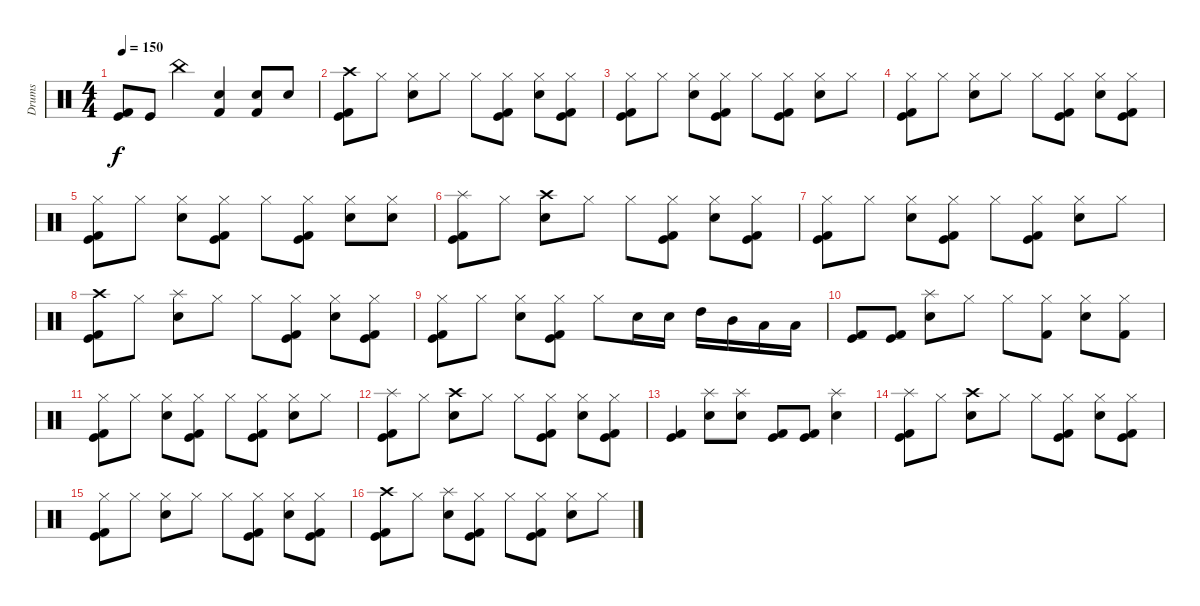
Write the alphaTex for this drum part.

\track ("Drums" "Drums") {instrument percussion}
\staff {score}
\articulation defaults
\ts (4 4)
\tempo 150
\clef neutral
\ks c
("Kick (hit)" "Kick (hit) 2").8{dy f} "Kick (hit)".8 "China (hit)".4 ("Snare (hit) 2" "Kick (hit) 2").4 ("Snare (hit) 2" "Kick (hit) 2").8 "Snare (hit) 2".8 |
("Crash high (hit)" "Kick (hit)" "Kick (hit) 2").8 "Hi-Hat (closed)".8 ("Hi-Hat (closed)" "Snare (hit) 2").8 "Hi-Hat (closed)".8 "Hi-Hat (closed)".8 ("Hi-Hat (closed)" "Kick (hit)" "Kick (hit) 2").8 ("Hi-Hat (closed)" "Snare (hit) 2").8 ("Hi-Hat (closed)" "Kick (hit)" "Kick (hit) 2").8 |
("Hi-Hat (closed)" "Kick (hit)" "Kick (hit) 2").8 "Hi-Hat (closed)".8 ("Hi-Hat (closed)" "Snare (hit) 2").8 ("Hi-Hat (closed)" "Kick (hit)" "Kick (hit) 2").8 "Hi-Hat (closed)".8 ("Hi-Hat (closed)" "Kick (hit)" "Kick (hit) 2").8 ("Hi-Hat (closed)" "Snare (hit) 2").8 "Hi-Hat (closed)".8 |
("Hi-Hat (closed)" "Kick (hit)" "Kick (hit) 2").8 "Hi-Hat (closed)".8 ("Hi-Hat (closed)" "Snare (hit) 2").8 "Hi-Hat (closed)".8 "Hi-Hat (closed)".8 ("Hi-Hat (closed)" "Kick (hit)" "Kick (hit) 2").8 ("Hi-Hat (closed)" "Snare (hit) 2").8 ("Hi-Hat (closed)" "Kick (hit)" "Kick (hit) 2").8 |
("Hi-Hat (closed)" "Kick (hit)" "Kick (hit) 2").8 "Hi-Hat (closed)".8 ("Hi-Hat (closed)" "Snare (hit) 2").8 ("Hi-Hat (closed)" "Kick (hit)" "Kick (hit) 2").8 "Hi-Hat (closed)".8 ("Hi-Hat (closed)" "Kick (hit)" "Kick (hit) 2").8 ("Hi-Hat (closed)" "Snare (hit) 2").8 ("Hi-Hat (closed)" "Snare (hit) 2").8 |
("Splash (hit)" "Kick (hit)" "Kick (hit) 2").8 "Hi-Hat (closed)".8 ("Crash high (hit)" "Snare (hit) 2").8 "Hi-Hat (closed)".8 "Hi-Hat (closed)".8 ("Hi-Hat (closed)" "Kick (hit)" "Kick (hit) 2").8 ("Hi-Hat (closed)" "Snare (hit) 2").8 ("Hi-Hat (closed)" "Kick (hit)" "Kick (hit) 2").8 |
("Hi-Hat (closed)" "Kick (hit)" "Kick (hit) 2").8 "Hi-Hat (closed)".8 ("Hi-Hat (closed)" "Snare (hit) 2").8 ("Hi-Hat (closed)" "Kick (hit)" "Kick (hit) 2").8 "Hi-Hat (closed)".8 ("Hi-Hat (closed)" "Kick (hit)" "Kick (hit) 2").8 ("Hi-Hat (closed)" "Snare (hit) 2").8 "Hi-Hat (closed)".8 |
("Crash high (hit)" "Kick (hit)" "Kick (hit) 2").8 "Hi-Hat (closed)".8 ("Splash (hit)" "Snare (hit) 2").8 "Hi-Hat (closed)".8 "Hi-Hat (closed)".8 ("Hi-Hat (closed)" "Kick (hit)" "Kick (hit) 2").8 ("Hi-Hat (closed)" "Snare (hit) 2").8 ("Hi-Hat (closed)" "Kick (hit)" "Kick (hit) 2").8 |
("Hi-Hat (closed)" "Kick (hit)" "Kick (hit) 2").8 "Hi-Hat (closed)".8 ("Hi-Hat (closed)" "Snare (hit) 2").8 ("Hi-Hat (closed)" "Kick (hit)" "Kick (hit) 2").8 "Hi-Hat (closed)".8 "Snare (hit) 2".16 "Snare (hit) 2".16 "High Tom (hit)".16 "Mid Tom (hit)".16 "Low Tom (hit)".16 "Low Floor Tom (hit)".16 |
("Kick (hit)" "Kick (hit) 2").8 ("Kick (hit)" "Kick (hit) 2").8 ("Splash (hit)" "Snare (hit) 2").8 "Hi-Hat (closed)".8 "Hi-Hat (closed)".8 ("Hi-Hat (closed)" "Kick (hit) 2").8 ("Hi-Hat (closed)" "Snare (hit) 2").8 ("Hi-Hat (closed)" "Kick (hit) 2").8 |
("Hi-Hat (closed)" "Kick (hit)" "Kick (hit) 2").8 "Hi-Hat (closed)".8 ("Hi-Hat (closed)" "Snare (hit) 2").8 ("Hi-Hat (closed)" "Kick (hit)" "Kick (hit) 2").8 "Hi-Hat (closed)".8 ("Hi-Hat (closed)" "Kick (hit)" "Kick (hit) 2").8 ("Hi-Hat (closed)" "Snare (hit) 2").8 "Hi-Hat (closed)".8 |
("Splash (hit)" "Kick (hit)" "Kick (hit) 2").8 "Hi-Hat (closed)".8 ("Crash high (hit)" "Snare (hit) 2").8 "Hi-Hat (closed)".8 "Hi-Hat (closed)".8 ("Hi-Hat (closed)" "Kick (hit)" "Kick (hit) 2").8 ("Hi-Hat (closed)" "Snare (hit) 2").8 ("Hi-Hat (closed)" "Kick (hit)" "Kick (hit) 2").8 |
("Kick (hit)" "Kick (hit) 2").4 ("Splash (hit)" "Snare (hit) 2").8 ("Splash (hit)" "Snare (hit) 2").8 ("Kick (hit)" "Kick (hit) 2").8 ("Kick (hit)" "Kick (hit) 2").8 ("Splash (hit)" "Snare (hit) 2").4 |
("Splash (hit)" "Kick (hit)" "Kick (hit) 2").8 "Hi-Hat (closed)".8 ("Crash high (hit)" "Snare (hit) 2").8 "Hi-Hat (closed)".8 "Hi-Hat (closed)".8 ("Hi-Hat (closed)" "Kick (hit)" "Kick (hit) 2").8 ("Hi-Hat (closed)" "Snare (hit) 2").8 ("Hi-Hat (closed)" "Kick (hit)" "Kick (hit) 2").8 |
("Hi-Hat (closed)" "Kick (hit)" "Kick (hit) 2").8 "Hi-Hat (closed)".8 ("Hi-Hat (closed)" "Snare (hit) 2").8 "Hi-Hat (closed)".8 "Hi-Hat (closed)".8 ("Hi-Hat (closed)" "Kick (hit)" "Kick (hit) 2").8 ("Hi-Hat (closed)" "Snare (hit) 2").8 ("Hi-Hat (closed)" "Kick (hit)" "Kick (hit) 2").8 |
("Crash high (hit)" "Kick (hit)" "Kick (hit) 2").8 "Hi-Hat (closed)".8 ("Splash (hit)" "Snare (hit) 2").8 ("Hi-Hat (closed)" "Kick (hit)" "Kick (hit) 2").8 "Hi-Hat (closed)".8 ("Hi-Hat (closed)" "Kick (hit)" "Kick (hit) 2").8 ("Hi-Hat (closed)" "Snare (hit) 2").8 "Hi-Hat (closed)".8
